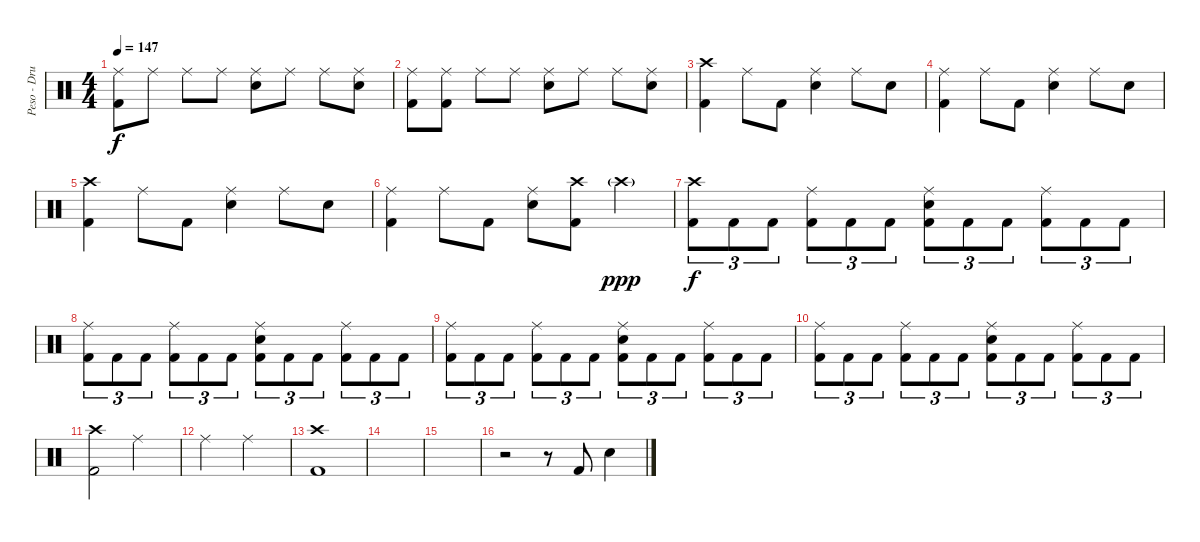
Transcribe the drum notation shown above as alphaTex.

\track ("Peso - Drums" "Peso - Dru") {instrument percussion}
\staff {score}
\articulation defaults
\ts (4 4)
\tempo 147
\clef neutral
\ks c
("Ride (middle)" "Kick (hit) 2").8{dy f} "Ride (middle)".8 "Ride (middle)".8 "Ride (middle)".8 ("Ride (middle)" "Electric Snare (hit)").8 "Ride (middle)".8 "Ride (middle)".8 ("Ride (middle)" "Electric Snare (hit)").8 |
("Ride (middle)" "Kick (hit) 2").8 ("Ride (middle)" "Kick (hit) 2").8 "Ride (middle)".8 "Ride (middle)".8 ("Ride (middle)" "Electric Snare (hit)").8 "Ride (middle)".8 "Ride (middle)".8 ("Ride (middle)" "Electric Snare (hit)").8 |
("Crash high (hit)" "Kick (hit) 2").4 "Ride (middle)".8 "Kick (hit) 2".8 ("Ride (middle)" "Electric Snare (hit)").4 "Ride (middle)".8 "Electric Snare (hit)".8 |
("Ride (middle)" "Kick (hit) 2").4 "Ride (middle)".8 "Kick (hit) 2".8 ("Ride (middle)" "Electric Snare (hit)").4 "Ride (middle)".8 "Electric Snare (hit)".8 |
("Crash high (hit)" "Kick (hit) 2").4 "Ride (middle)".8 "Kick (hit) 2".8 ("Ride (middle)" "Electric Snare (hit)").4 "Ride (middle)".8 "Electric Snare (hit)".8 |
("Ride (middle)" "Kick (hit) 2").4 "Ride (middle)".8 "Kick (hit) 2".8 ("Ride (middle)" "Electric Snare (hit)").8 ("Crash high (hit)" "Kick (hit) 2").8 "Crash high (hit)"{g}.4{dy ppp} |
("Crash high (hit)" "Kick (hit) 2").8{tu (3 2) dy f} "Kick (hit) 2".8{tu (3 2)} "Kick (hit) 2".8{tu (3 2)} ("Ride (middle)" "Kick (hit) 2").8{tu (3 2)} "Kick (hit) 2".8{tu (3 2)} "Kick (hit) 2".8{tu (3 2)} ("Ride (middle)" "Electric Snare (hit)" "Kick (hit) 2").8{tu (3 2)} "Kick (hit) 2".8{tu (3 2)} "Kick (hit) 2".8{tu (3 2)} ("Ride (middle)" "Kick (hit) 2").8{tu (3 2)} "Kick (hit) 2".8{tu (3 2)} "Kick (hit) 2".8{tu (3 2)} |
("Ride (middle)" "Kick (hit) 2").8{tu (3 2)} "Kick (hit) 2".8{tu (3 2)} "Kick (hit) 2".8{tu (3 2)} ("Ride (middle)" "Kick (hit) 2").8{tu (3 2)} "Kick (hit) 2".8{tu (3 2)} "Kick (hit) 2".8{tu (3 2)} ("Ride (middle)" "Electric Snare (hit)" "Kick (hit) 2").8{tu (3 2)} "Kick (hit) 2".8{tu (3 2)} "Kick (hit) 2".8{tu (3 2)} ("Ride (middle)" "Kick (hit) 2").8{tu (3 2)} "Kick (hit) 2".8{tu (3 2)} "Kick (hit) 2".8{tu (3 2)} |
("Ride (middle)" "Kick (hit) 2").8{tu (3 2)} "Kick (hit) 2".8{tu (3 2)} "Kick (hit) 2".8{tu (3 2)} ("Ride (middle)" "Kick (hit) 2").8{tu (3 2)} "Kick (hit) 2".8{tu (3 2)} "Kick (hit) 2".8{tu (3 2)} ("Ride (middle)" "Electric Snare (hit)" "Kick (hit) 2").8{tu (3 2)} "Kick (hit) 2".8{tu (3 2)} "Kick (hit) 2".8{tu (3 2)} ("Ride (middle)" "Kick (hit) 2").8{tu (3 2)} "Kick (hit) 2".8{tu (3 2)} "Kick (hit) 2".8{tu (3 2)} |
("Ride (middle)" "Kick (hit) 2").8{tu (3 2)} "Kick (hit) 2".8{tu (3 2)} "Kick (hit) 2".8{tu (3 2)} ("Ride (middle)" "Kick (hit) 2").8{tu (3 2)} "Kick (hit) 2".8{tu (3 2)} "Kick (hit) 2".8{tu (3 2)} ("Ride (middle)" "Electric Snare (hit)" "Kick (hit) 2").8{tu (3 2)} "Kick (hit) 2".8{tu (3 2)} "Kick (hit) 2".8{tu (3 2)} ("Ride (middle)" "Kick (hit) 2").8{tu (3 2)} "Kick (hit) 2".8{tu (3 2)} "Kick (hit) 2".8{tu (3 2)} |
("Crash high (hit)" "Kick (hit) 2").2 "Ride (middle)".2 |
"Ride (middle)".2 "Ride (middle)".2 |
("Crash high (hit)" "Kick (hit) 2").1 |
|
|
r.2 r.8 "Kick (hit) 2".8 "Electric Snare (hit)".4
